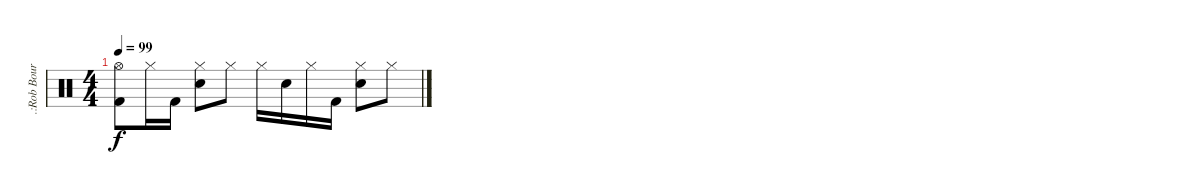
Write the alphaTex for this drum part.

\track (".:Rob Bourdon - Drums:." ".:Rob Bour") {instrument percussion}
\staff {score}
\articulation defaults
\ts (4 4)
\tempo 99
\clef neutral
\ks c
("Hi-Hat (open)" "Kick (hit) 2").8{dy f} "Hi-Hat (closed)".16 "Kick (hit) 2".16 ("Hi-Hat (closed)" "Electric Snare (hit)").8 "Hi-Hat (closed)".8 "Hi-Hat (closed)".16 "Electric Snare (hit)".16 "Hi-Hat (closed)".16 "Kick (hit) 2".16 ("Hi-Hat (closed)" "Electric Snare (hit)").8 "Hi-Hat (closed)".8
